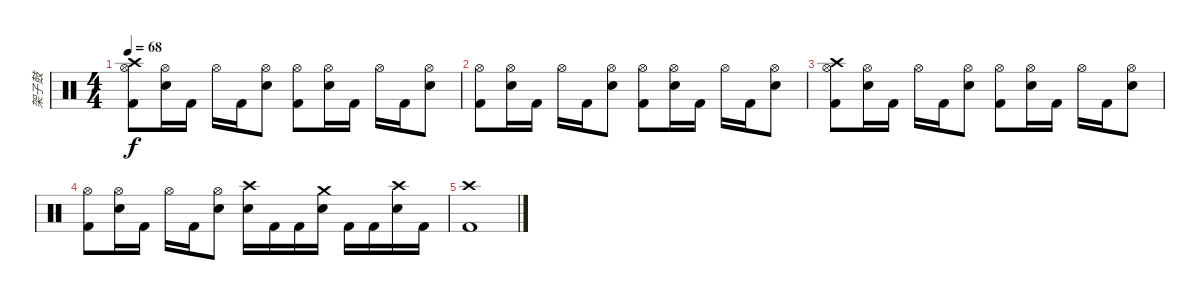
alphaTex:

\track ("架子鼓" "架子鼓") {instrument percussion}
\staff {score}
\articulation defaults
\ts (4 4)
\tempo 68
\clef neutral
\ks c
("Crash high (hit)" "Hi-Hat (open)" "Kick (hit) 2").8{dy f} ("Hi-Hat (open)" "Snare (hit) 2").16 "Kick (hit) 2".16 "Hi-Hat (open)".16 "Kick (hit) 2".16 ("Hi-Hat (open)" "Snare (hit) 2").8 ("Hi-Hat (open)" "Kick (hit) 2").8 ("Hi-Hat (open)" "Snare (hit) 2").16 "Kick (hit) 2".16 "Hi-Hat (open)".16 "Kick (hit) 2".16 ("Hi-Hat (open)" "Snare (hit) 2").8 |
("Hi-Hat (open)" "Kick (hit) 2").8 ("Hi-Hat (open)" "Snare (hit) 2").16 "Kick (hit) 2".16 "Hi-Hat (open)".16 "Kick (hit) 2".16 ("Hi-Hat (open)" "Snare (hit) 2").8 ("Hi-Hat (open)" "Kick (hit) 2").8 ("Hi-Hat (open)" "Snare (hit) 2").16 "Kick (hit) 2".16 "Hi-Hat (open)".16 "Kick (hit) 2".16 ("Hi-Hat (open)" "Snare (hit) 2").8 |
("Crash high (hit)" "Hi-Hat (open)" "Kick (hit) 2").8 ("Hi-Hat (open)" "Snare (hit) 2").16 "Kick (hit) 2".16 "Hi-Hat (open)".16 "Kick (hit) 2".16 ("Hi-Hat (open)" "Snare (hit) 2").8 ("Hi-Hat (open)" "Kick (hit) 2").8 ("Hi-Hat (open)" "Snare (hit) 2").16 "Kick (hit) 2".16 "Hi-Hat (open)".16 "Kick (hit) 2".16 ("Hi-Hat (open)" "Snare (hit) 2").8 |
("Hi-Hat (open)" "Kick (hit) 2").8 ("Hi-Hat (open)" "Snare (hit) 2").16 "Kick (hit) 2".16 "Hi-Hat (open)".16 "Kick (hit) 2".16 ("Hi-Hat (open)" "Snare (hit) 2").8 ("Crash high (hit)" "Snare (hit) 2").16 "Kick (hit) 2".16 "Kick (hit) 2".16 ("Crash medium (hit)" "Snare (hit) 2").16 "Kick (hit) 2".16 "Kick (hit) 2".16 ("Crash high (hit)" "Snare (hit) 2").16 "Kick (hit) 2".16 |
("Crash high (hit)" "Kick (hit) 2").1
